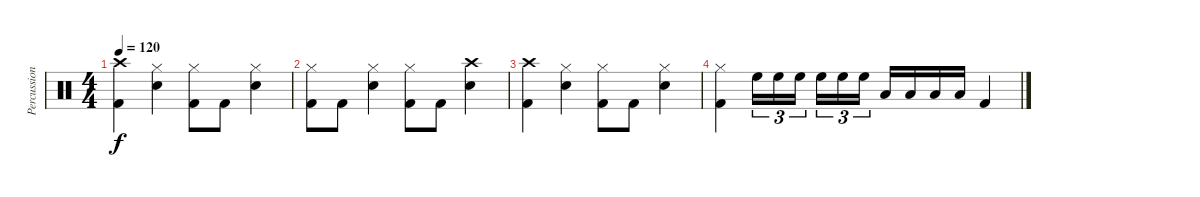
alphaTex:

\track ("Percussion" "Percussion") {instrument percussion}
\staff {score}
\articulation defaults
\ts (4 4)
\tempo 120
\clef neutral
\ks c
("Crash high (hit)" "Kick (hit) 2").4{dy f} ("Hi-Hat (closed)" "Snare (hit) 2").4 ("Hi-Hat (closed)" "Kick (hit) 2").8 "Kick (hit) 2".8 ("Hi-Hat (closed)" "Snare (hit) 2").4 |
("Hi-Hat (closed)" "Kick (hit) 2").8 "Kick (hit) 2".8 ("Hi-Hat (closed)" "Snare (hit) 2").4 ("Hi-Hat (closed)" "Kick (hit) 2").8 "Kick (hit) 2".8 ("Crash high (hit)" "Snare (hit) 2").4 |
("Crash high (hit)" "Kick (hit) 2").4 ("Hi-Hat (closed)" "Snare (hit) 2").4 ("Hi-Hat (closed)" "Kick (hit) 2").8 "Kick (hit) 2".8 ("Hi-Hat (closed)" "Snare (hit) 2").4 |
("Hi-Hat (closed)" "Kick (hit) 2").4 "High Floor Tom (hit)".16{tu (3 2)} "High Floor Tom (hit)".16{tu (3 2)} "High Floor Tom (hit)".16{tu (3 2)} "High Floor Tom (hit)".16{tu (3 2)} "High Floor Tom (hit)".16{tu (3 2)} "High Floor Tom (hit)".16{tu (3 2)} "Low Tom (hit)".16 "Low Tom (hit)".16 "Low Tom (hit)".16 "Low Tom (hit)".16 "Kick (hit) 2".4
